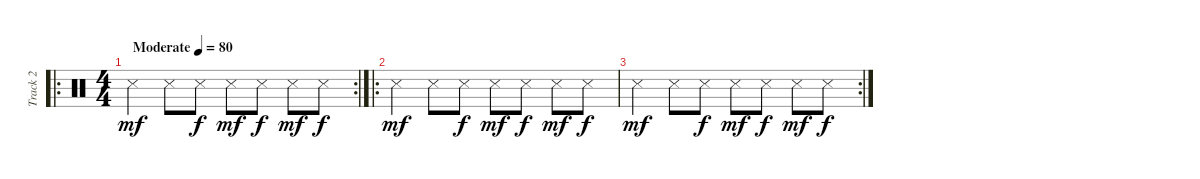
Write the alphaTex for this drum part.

\track ("Track 2" "Track 2") {instrument percussion}
\staff {score}
\articulation defaults
\ro
\rc 2
\ts (4 4)
\tempo (80 "Moderate")
\clef neutral
\ks c "Snare (side stick) 3".4{dy mf} "Snare (side stick) 3".8 "Snare (side stick) 3".8{dy f} "Snare (side stick) 3".8{dy mf} "Snare (side stick) 3".8{dy f} "Snare (side stick) 3".8{dy mf} "Snare (side stick) 3".8{dy f}
|
\ro "Snare (side stick) 3".4{dy mf} "Snare (side stick) 3".8 "Snare (side stick) 3".8{dy f} "Snare (side stick) 3".8{dy mf} "Snare (side stick) 3".8{dy f} "Snare (side stick) 3".8{dy mf} "Snare (side stick) 3".8{dy f}
|
\rc 2 "Snare (side stick) 3".4{dy mf} "Snare (side stick) 3".8 "Snare (side stick) 3".8{dy f} "Snare (side stick) 3".8{dy mf} "Snare (side stick) 3".8{dy f} "Snare (side stick) 3".8{dy mf} "Snare (side stick) 3".8{dy f}
